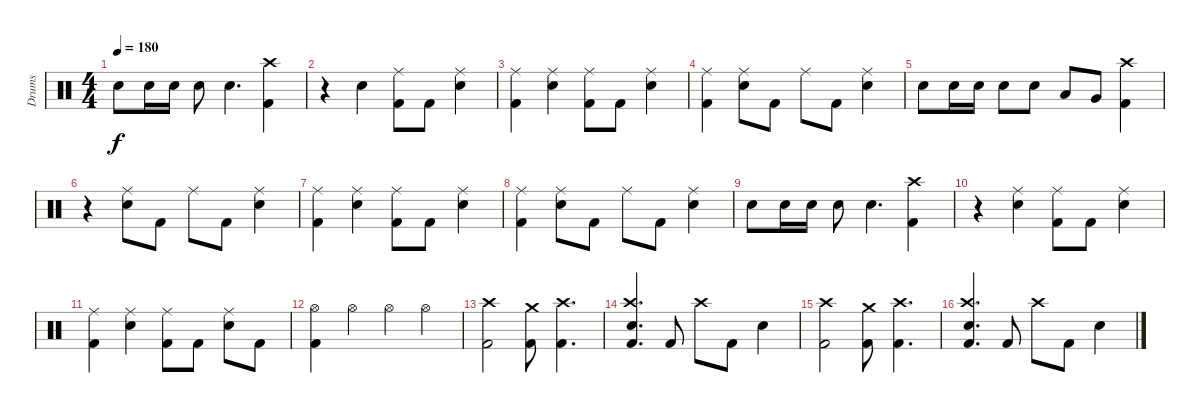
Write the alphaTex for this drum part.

\track ("Drums" "Drums") {instrument percussion}
\staff {score}
\articulation defaults
\ts (4 4)
\tempo 180
\clef neutral
\ks c "Electric Snare (hit)".8{dy f} "Electric Snare (hit)".16 "Electric Snare (hit)".16 "Electric Snare (hit)".8 "Electric Snare (hit)".4{d}
("Crash high (hit)" "Kick (hit) 2").4 |
r.4 "Electric Snare (hit)".4 ("Ride (middle)" "Kick (hit) 2").8 "Kick (hit) 2".8 ("Ride (middle)" "Electric Snare (hit)").4 |
("Ride (middle)" "Kick (hit) 2").4 ("Ride (middle)" "Electric Snare (hit)").4 ("Ride (middle)" "Kick (hit) 2").8 "Kick (hit) 2".8 ("Ride (middle)" "Electric Snare (hit)").4 |
("Ride (middle)" "Kick (hit) 2").4 ("Ride (middle)" "Electric Snare (hit)").8 "Kick (hit) 2".8 "Ride (middle)".8 "Kick (hit) 2".8 ("Ride (middle)" "Electric Snare (hit)").4 |
"Electric Snare (hit)".8 "Electric Snare (hit)".16 "Electric Snare (hit)".16 "Electric Snare (hit)".8 "Electric Snare (hit)".8 "Low Tom (hit)".8 "Very Low Tom (hit)".8 ("Crash high (hit)" "Kick (hit) 2").4 |
r.4 ("Ride (middle)" "Electric Snare (hit)").8 "Kick (hit) 2".8 "Ride (middle)".8 "Kick (hit) 2".8 ("Ride (middle)" "Electric Snare (hit)").4 |
("Ride (middle)" "Kick (hit) 2").4 ("Ride (middle)" "Electric Snare (hit)").4 ("Ride (middle)" "Kick (hit) 2").8 "Kick (hit) 2".8 ("Ride (middle)" "Electric Snare (hit)").4 |
("Ride (middle)" "Kick (hit) 2").4 ("Ride (middle)" "Electric Snare (hit)").8 "Kick (hit) 2".8 "Ride (middle)".8 "Kick (hit) 2".8 ("Ride (middle)" "Electric Snare (hit)").4 |
"Electric Snare (hit)".8 "Electric Snare (hit)".16 "Electric Snare (hit)".16 "Electric Snare (hit)".8 "Electric Snare (hit)".4{d} ("Crash high (hit)" "Kick (hit) 2").4 |
r.4 ("Ride (middle)" "Electric Snare (hit)").4 ("Ride (middle)" "Kick (hit) 2").8 "Kick (hit) 2".8 ("Ride (middle)" "Electric Snare (hit)").4 |
("Ride (middle)" "Kick (hit) 2").4 ("Ride (middle)" "Electric Snare (hit)").4 ("Ride (middle)" "Kick (hit) 2").8 "Kick (hit) 2".8 ("Ride (middle)" "Electric Snare (hit)").8 "Kick (hit) 2".8 |
("Hi-Hat (open)" "Kick (hit) 2").4 "Hi-Hat (open)".4 "Hi-Hat (open)".4 "Hi-Hat (open)".4 |
("Crash high (hit)" "Kick (hit) 2").2 ("Crash medium (hit)" "Kick (hit) 2").8 ("Crash high (hit)" "Kick (hit) 2").4{d} |
("Crash high (hit)" "Electric Snare (hit)" "Kick (hit) 2").4{d} "Kick (hit) 2".8 "Crash high (hit)".8 "Kick (hit) 2".8 "Electric Snare (hit)".4 |
("Crash high (hit)" "Kick (hit) 2").2 ("Crash medium (hit)" "Kick (hit) 2").8 ("Crash high (hit)" "Kick (hit) 2").4{d} |
("Crash high (hit)" "Electric Snare (hit)" "Kick (hit) 2").4{d} "Kick (hit) 2".8 "Crash high (hit)".8 "Kick (hit) 2".8 "Electric Snare (hit)".4
